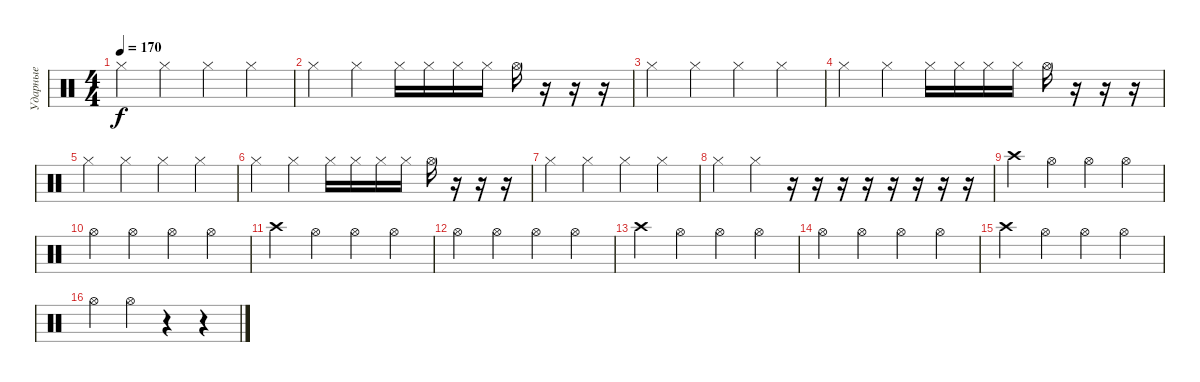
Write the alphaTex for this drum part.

\track ("Ударные" "Ударные") {instrument percussion}
\staff {score}
\articulation defaults
\ts (4 4)
\tempo 170
\clef neutral
\ks c "Hi-Hat (closed)".4{dy f} "Hi-Hat (closed)".4 "Hi-Hat (closed)".4 "Hi-Hat (closed)".4
|
"Hi-Hat (closed)".4 "Hi-Hat (closed)".4 "Hi-Hat (closed)".16 "Hi-Hat (closed)".16 "Hi-Hat (closed)".16 "Hi-Hat (closed)".16 "Hi-Hat (open)".16 r.16 r.16 r.16 |
"Hi-Hat (closed)".4 "Hi-Hat (closed)".4 "Hi-Hat (closed)".4 "Hi-Hat (closed)".4 |
"Hi-Hat (closed)".4 "Hi-Hat (closed)".4 "Hi-Hat (closed)".16 "Hi-Hat (closed)".16 "Hi-Hat (closed)".16 "Hi-Hat (closed)".16 "Hi-Hat (open)".16 r.16 r.16 r.16 |
"Hi-Hat (closed)".4 "Hi-Hat (closed)".4 "Hi-Hat (closed)".4 "Hi-Hat (closed)".4 |
"Hi-Hat (closed)".4 "Hi-Hat (closed)".4 "Hi-Hat (closed)".16 "Hi-Hat (closed)".16 "Hi-Hat (closed)".16 "Hi-Hat (closed)".16 "Hi-Hat (open)".16 r.16 r.16 r.16 |
"Hi-Hat (closed)".4 "Hi-Hat (closed)".4 "Hi-Hat (closed)".4 "Hi-Hat (closed)".4 |
"Hi-Hat (closed)".4 "Hi-Hat (closed)".4 r.16 r.16 r.16 r.16 r.16 r.16 r.16 r.16 |
"Crash high (hit)".4 "Hi-Hat (open)".4 "Hi-Hat (open)".4 "Hi-Hat (open)".4 |
"Hi-Hat (open)".4 "Hi-Hat (open)".4 "Hi-Hat (open)".4 "Hi-Hat (open)".4 |
"Crash high (hit)".4 "Hi-Hat (open)".4 "Hi-Hat (open)".4 "Hi-Hat (open)".4 |
"Hi-Hat (open)".4 "Hi-Hat (open)".4 "Hi-Hat (open)".4 "Hi-Hat (open)".4 |
"Crash high (hit)".4 "Hi-Hat (open)".4 "Hi-Hat (open)".4 "Hi-Hat (open)".4 |
"Hi-Hat (open)".4 "Hi-Hat (open)".4 "Hi-Hat (open)".4 "Hi-Hat (open)".4 |
"Crash high (hit)".4 "Hi-Hat (open)".4 "Hi-Hat (open)".4 "Hi-Hat (open)".4 |
"Hi-Hat (open)".4 "Hi-Hat (open)".4 r.4 r.4
